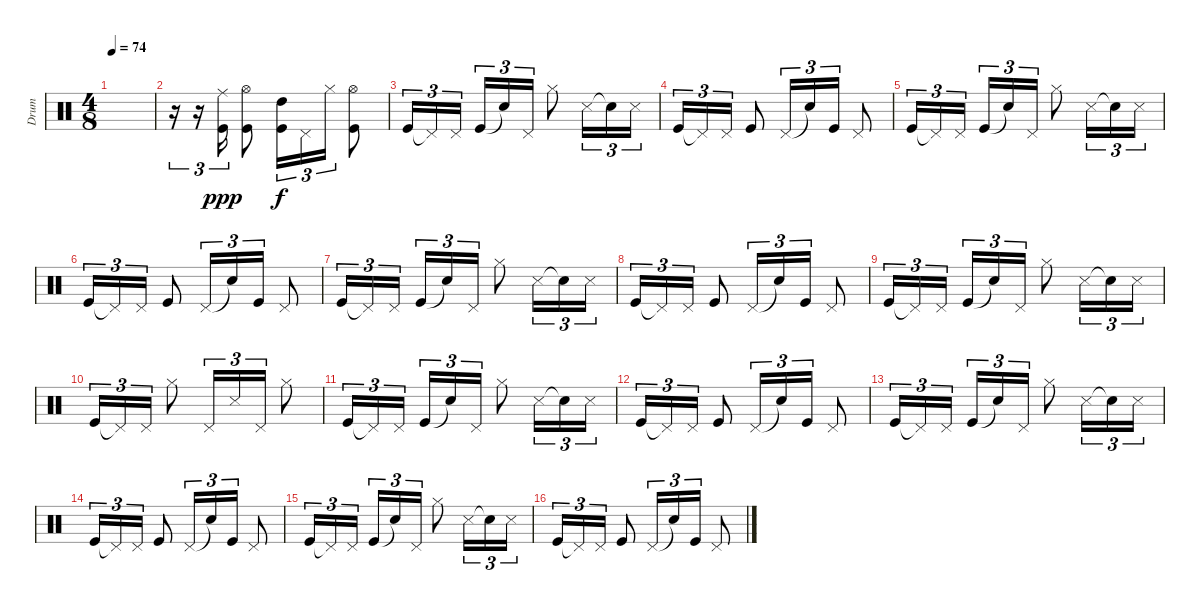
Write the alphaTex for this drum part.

\track ("Drum" "Drum") {instrument percussion}
\staff {score}
\articulation defaults
\ts (4 8)
\tempo 74
\clef neutral
\ks c
|
r.16{tu (3 2)} r.16{tu (3 2)} ("Ride (middle)" "Kick (hit)").16{tu (3 2) dy ppp} ("Hi-Hat (open)" "Kick (hit)").8 ("High Tom (hit)" "Kick (hit)").16{tu (3 2) dy f} "Pedal Hi-Hat (hit)".16{tu (3 2)} "Hi-Hat (closed)".16{tu (3 2)} ("Hi-Hat (open)" "Kick (hit)").8 |
"Kick (hit)".16{tu (3 2)} "Pedal Hi-Hat (hit)"{t}.16{tu (3 2)} "Pedal Hi-Hat (hit)".16{tu (3 2)} "Kick (hit)".16{tu (3 2)} "Snare (hit)"{t}.16{tu (3 2)} "Pedal Hi-Hat (hit)".16{tu (3 2)} "Hi-Hat (closed)".8 "Snare (side stick) 3".16{tu (3 2)} "Snare (hit)"{t}.16{tu (3 2)} "Snare (side stick) 3".16{tu (3 2)} |
"Kick (hit)".16{tu (3 2)} "Pedal Hi-Hat (hit)"{t}.16{tu (3 2)} "Pedal Hi-Hat (hit)".16{tu (3 2)} "Kick (hit)".8 "Pedal Hi-Hat (hit)".16{tu (3 2)} "Snare (hit)"{t}.16{tu (3 2)} "Kick (hit)".16{tu (3 2)} "Pedal Hi-Hat (hit)".8 |
"Kick (hit)".16{tu (3 2)} "Pedal Hi-Hat (hit)"{t}.16{tu (3 2)} "Pedal Hi-Hat (hit)".16{tu (3 2)} "Kick (hit)".16{tu (3 2)} "Snare (hit)"{t}.16{tu (3 2)} "Pedal Hi-Hat (hit)".16{tu (3 2)} "Hi-Hat (closed)".8 "Snare (side stick) 3".16{tu (3 2)} "Snare (hit)"{t}.16{tu (3 2)} "Snare (side stick) 3".16{tu (3 2)} |
"Kick (hit)".16{tu (3 2)} "Pedal Hi-Hat (hit)"{t}.16{tu (3 2)} "Pedal Hi-Hat (hit)".16{tu (3 2)} "Kick (hit)".8 "Pedal Hi-Hat (hit)".16{tu (3 2)} "Snare (hit)"{t}.16{tu (3 2)} "Kick (hit)".16{tu (3 2)} "Pedal Hi-Hat (hit)".8 |
"Kick (hit)".16{tu (3 2)} "Pedal Hi-Hat (hit)"{t}.16{tu (3 2)} "Pedal Hi-Hat (hit)".16{tu (3 2)} "Kick (hit)".16{tu (3 2)} "Snare (hit)"{t}.16{tu (3 2)} "Pedal Hi-Hat (hit)".16{tu (3 2)} "Hi-Hat (closed)".8 "Snare (side stick) 3".16{tu (3 2)} "Snare (hit)"{t}.16{tu (3 2)} "Snare (side stick) 3".16{tu (3 2)} |
"Kick (hit)".16{tu (3 2)} "Pedal Hi-Hat (hit)"{t}.16{tu (3 2)} "Pedal Hi-Hat (hit)".16{tu (3 2)} "Kick (hit)".8 "Pedal Hi-Hat (hit)".16{tu (3 2)} "Snare (hit)"{t}.16{tu (3 2)} "Kick (hit)".16{tu (3 2)} "Pedal Hi-Hat (hit)".8 |
"Kick (hit)".16{tu (3 2)} "Pedal Hi-Hat (hit)"{t}.16{tu (3 2)} "Pedal Hi-Hat (hit)".16{tu (3 2)} "Kick (hit)".16{tu (3 2)} "Snare (hit)"{t}.16{tu (3 2)} "Pedal Hi-Hat (hit)".16{tu (3 2)} "Hi-Hat (closed)".8 "Snare (side stick) 3".16{tu (3 2)} "Snare (hit)"{t}.16{tu (3 2)} "Snare (side stick) 3".16{tu (3 2)} |
"Kick (hit)".16{tu (3 2)} "Pedal Hi-Hat (hit)"{t}.16{tu (3 2)} "Pedal Hi-Hat (hit)".16{tu (3 2)} "Hi-Hat (closed)".8 "Pedal Hi-Hat (hit)".16{tu (3 2)} "Snare (side stick) 3".16{tu (3 2)} "Pedal Hi-Hat (hit)".16{tu (3 2)} "Hi-Hat (closed)".8 |
"Kick (hit)".16{tu (3 2)} "Pedal Hi-Hat (hit)"{t}.16{tu (3 2)} "Pedal Hi-Hat (hit)".16{tu (3 2)} "Kick (hit)".16{tu (3 2)} "Snare (hit)"{t}.16{tu (3 2)} "Pedal Hi-Hat (hit)".16{tu (3 2)} "Hi-Hat (closed)".8 "Snare (side stick) 3".16{tu (3 2)} "Snare (hit)"{t}.16{tu (3 2)} "Snare (side stick) 3".16{tu (3 2)} |
"Kick (hit)".16{tu (3 2)} "Pedal Hi-Hat (hit)"{t}.16{tu (3 2)} "Pedal Hi-Hat (hit)".16{tu (3 2)} "Kick (hit)".8 "Pedal Hi-Hat (hit)".16{tu (3 2)} "Snare (hit)"{t}.16{tu (3 2)} "Kick (hit)".16{tu (3 2)} "Pedal Hi-Hat (hit)".8 |
"Kick (hit)".16{tu (3 2)} "Pedal Hi-Hat (hit)"{t}.16{tu (3 2)} "Pedal Hi-Hat (hit)".16{tu (3 2)} "Kick (hit)".16{tu (3 2)} "Snare (hit)"{t}.16{tu (3 2)} "Pedal Hi-Hat (hit)".16{tu (3 2)} "Hi-Hat (closed)".8 "Snare (side stick) 3".16{tu (3 2)} "Snare (hit)"{t}.16{tu (3 2)} "Snare (side stick) 3".16{tu (3 2)} |
"Kick (hit)".16{tu (3 2)} "Pedal Hi-Hat (hit)"{t}.16{tu (3 2)} "Pedal Hi-Hat (hit)".16{tu (3 2)} "Kick (hit)".8 "Pedal Hi-Hat (hit)".16{tu (3 2)} "Snare (hit)"{t}.16{tu (3 2)} "Kick (hit)".16{tu (3 2)} "Pedal Hi-Hat (hit)".8 |
"Kick (hit)".16{tu (3 2)} "Pedal Hi-Hat (hit)"{t}.16{tu (3 2)} "Pedal Hi-Hat (hit)".16{tu (3 2)} "Kick (hit)".16{tu (3 2)} "Snare (hit)"{t}.16{tu (3 2)} "Pedal Hi-Hat (hit)".16{tu (3 2)} "Hi-Hat (closed)".8 "Snare (side stick) 3".16{tu (3 2)} "Snare (hit)"{t}.16{tu (3 2)} "Snare (side stick) 3".16{tu (3 2)} |
"Kick (hit)".16{tu (3 2)} "Pedal Hi-Hat (hit)"{t}.16{tu (3 2)} "Pedal Hi-Hat (hit)".16{tu (3 2)} "Kick (hit)".8 "Pedal Hi-Hat (hit)".16{tu (3 2)} "Snare (hit)"{t}.16{tu (3 2)} "Kick (hit)".16{tu (3 2)} "Pedal Hi-Hat (hit)".8
